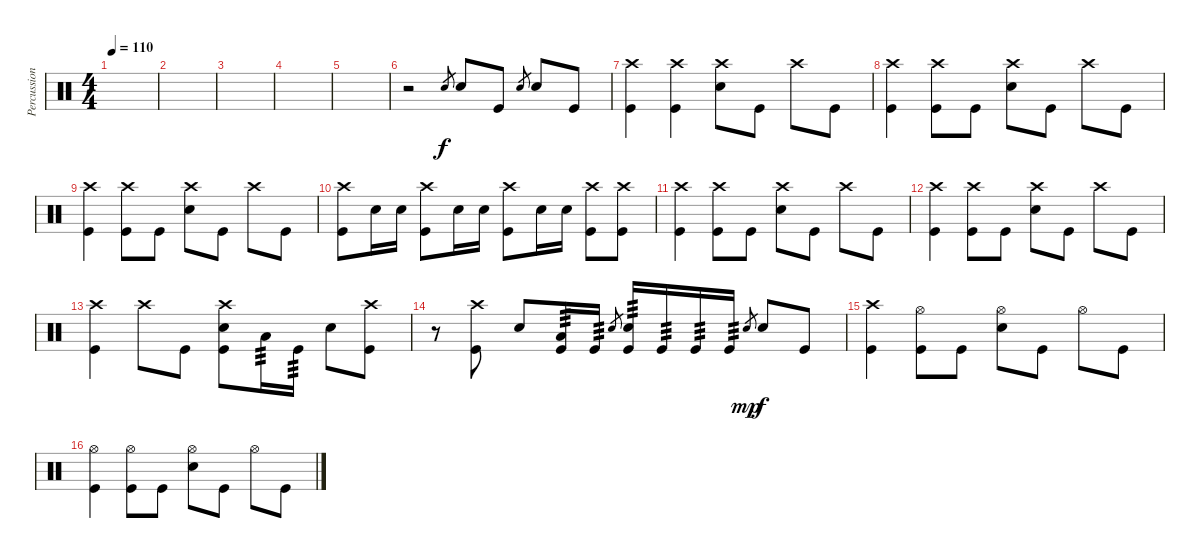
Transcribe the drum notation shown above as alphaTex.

\track ("Percussion" "Percussion") {instrument percussion}
\staff {score}
\articulation defaults
\ts (4 4)
\tempo 110
\clef neutral
\ks c
|
|
|
|
|
r.2 "Electric Snare (hit)".8{gr} "Electric Snare (hit)".8 "Kick (hit)".8 "Electric Snare (hit)".8{gr} "Electric Snare (hit)".8 "Kick (hit)".8 |
("Crash high (hit)" "Kick (hit)").4 ("Crash high (hit)" "Kick (hit)").4 ("Crash high (hit)" "Electric Snare (hit)").8 "Kick (hit)".8 "Crash high (hit)".8 "Kick (hit)".8 |
("Crash high (hit)" "Kick (hit)").4 ("Crash high (hit)" "Kick (hit)").8 "Kick (hit)".8 ("Crash high (hit)" "Electric Snare (hit)").8 "Kick (hit)".8 "Crash high (hit)".8 "Kick (hit)".8 |
("Crash high (hit)" "Kick (hit)").4 ("Crash high (hit)" "Kick (hit)").8 "Kick (hit)".8 ("Crash high (hit)" "Electric Snare (hit)").8 "Kick (hit)".8 "Crash high (hit)".8 "Kick (hit)".8 |
("Crash high (hit)" "Kick (hit)").8 "Electric Snare (hit)".16 "Electric Snare (hit)".16 ("Crash high (hit)" "Kick (hit)").8 "Electric Snare (hit)".16 "Electric Snare (hit)".16 ("Crash high (hit)" "Kick (hit)").8 "Electric Snare (hit)".16 "Electric Snare (hit)".16 ("Crash high (hit)" "Kick (hit)").8 ("Crash high (hit)" "Kick (hit)").8 |
("Crash high (hit)" "Kick (hit)").4 ("Crash high (hit)" "Kick (hit)").8 "Kick (hit)".8 ("Crash high (hit)" "Electric Snare (hit)").8 "Kick (hit)".8 "Crash high (hit)".8 "Kick (hit)".8 |
("Crash high (hit)" "Kick (hit)").4 ("Crash high (hit)" "Kick (hit)").8 "Kick (hit)".8 ("Crash high (hit)" "Electric Snare (hit)").8 "Kick (hit)".8 "Crash high (hit)".8 "Kick (hit)".8 |
("Crash high (hit)" "Kick (hit)").4 "Crash high (hit)".8 "Kick (hit)".8 ("Crash high (hit)" "Electric Snare (hit)" "Kick (hit)").8 "Low Floor Tom (hit)".16{tp 3} "Kick (hit)".16{tp 3} "Electric Snare (hit)".8 ("Crash high (hit)" "Kick (hit)").8 |
r.8 ("Crash high (hit)" "Kick (hit)").8 "Electric Snare (hit)".8 ("Low Floor Tom (hit)" "Kick (hit)").16{tp 3} "Kick (hit)".16{tp 3} "Electric Snare (hit)".8{gr} ("Electric Snare (hit)" "Kick (hit)").16{tp 3} "Kick (hit)".16{tp 3} "Kick (hit)".16{tp 3} "Kick (hit)".16{tp 3} "Electric Snare (hit)".8{gr dy mp} "Electric Snare (hit)".8{dy f} "Kick (hit)".8 |
("Crash high (hit)" "Kick (hit)").4 ("Hi-Hat (open)" "Kick (hit)").8 "Kick (hit)".8 ("Hi-Hat (open)" "Electric Snare (hit)").8 "Kick (hit)".8 "Hi-Hat (open)".8 "Kick (hit)".8 |
("Hi-Hat (open)" "Kick (hit)").4 ("Hi-Hat (open)" "Kick (hit)").8 "Kick (hit)".8 ("Hi-Hat (open)" "Electric Snare (hit)").8 "Kick (hit)".8 "Hi-Hat (open)".8 "Kick (hit)".8
